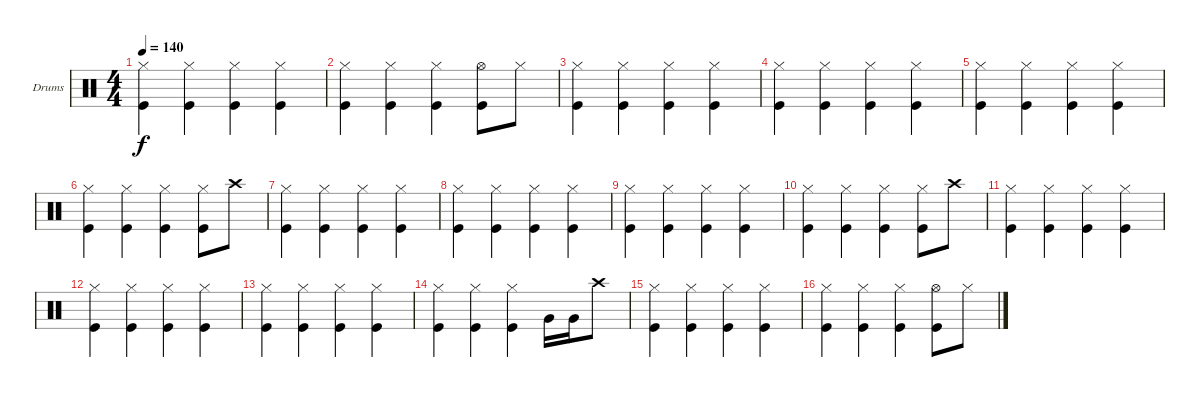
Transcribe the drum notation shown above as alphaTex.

\bracketExtendMode groupsimilarinstruments
\firstSystemTrackNameOrientation horizontal
\otherSystemsTrackNameOrientation horizontal
\track ("Drumkit" "Drums") {instrument percussion}
\staff {score}
\articulation defaults
\ts (4 4)
\tempo 140
\clef neutral
\ks c
("Hi-Hat (closed)" "Kick (hit)").4{dy f} ("Hi-Hat (closed)" "Kick (hit)").4 ("Hi-Hat (closed)" "Kick (hit)").4 ("Hi-Hat (closed)" "Kick (hit)").4 |
("Hi-Hat (closed)" "Kick (hit)").4 ("Hi-Hat (closed)" "Kick (hit)").4 ("Hi-Hat (closed)" "Kick (hit)").4 ("Hi-Hat (open)" "Kick (hit)").8 "Hi-Hat (closed)".8 |
("Hi-Hat (closed)" "Kick (hit)").4 ("Hi-Hat (closed)" "Kick (hit)").4 ("Hi-Hat (closed)" "Kick (hit)").4 ("Hi-Hat (closed)" "Kick (hit)").4 |
("Hi-Hat (closed)" "Kick (hit)").4 ("Hi-Hat (closed)" "Kick (hit)").4 ("Hi-Hat (closed)" "Kick (hit)").4 ("Hi-Hat (closed)" "Kick (hit)").4 |
("Hi-Hat (closed)" "Kick (hit)").4 ("Hi-Hat (closed)" "Kick (hit)").4 ("Hi-Hat (closed)" "Kick (hit)").4 ("Hi-Hat (closed)" "Kick (hit)").4 |
("Hi-Hat (closed)" "Kick (hit)").4 ("Hi-Hat (closed)" "Kick (hit)").4 ("Hi-Hat (closed)" "Kick (hit)").4 ("Hi-Hat (closed)" "Kick (hit)").8 "Crash high (hit)".8 |
("Hi-Hat (closed)" "Kick (hit)").4 ("Hi-Hat (closed)" "Kick (hit)").4 ("Hi-Hat (closed)" "Kick (hit)").4 ("Hi-Hat (closed)" "Kick (hit)").4 |
("Hi-Hat (closed)" "Kick (hit)").4 ("Hi-Hat (closed)" "Kick (hit)").4 ("Hi-Hat (closed)" "Kick (hit)").4 ("Hi-Hat (closed)" "Kick (hit)").4 |
("Hi-Hat (closed)" "Kick (hit)").4 ("Hi-Hat (closed)" "Kick (hit)").4 ("Hi-Hat (closed)" "Kick (hit)").4 ("Hi-Hat (closed)" "Kick (hit)").4 |
("Hi-Hat (closed)" "Kick (hit)").4 ("Hi-Hat (closed)" "Kick (hit)").4 ("Hi-Hat (closed)" "Kick (hit)").4 ("Hi-Hat (closed)" "Kick (hit)").8 "Crash high (hit)".8 |
("Hi-Hat (closed)" "Kick (hit)").4 ("Hi-Hat (closed)" "Kick (hit)").4 ("Hi-Hat (closed)" "Kick (hit)").4 ("Hi-Hat (closed)" "Kick (hit)").4 |
("Hi-Hat (closed)" "Kick (hit)").4 ("Hi-Hat (closed)" "Kick (hit)").4 ("Hi-Hat (closed)" "Kick (hit)").4 ("Hi-Hat (closed)" "Kick (hit)").4 |
("Hi-Hat (closed)" "Kick (hit)").4 ("Hi-Hat (closed)" "Kick (hit)").4 ("Hi-Hat (closed)" "Kick (hit)").4 ("Hi-Hat (closed)" "Kick (hit)").4 |
("Hi-Hat (closed)" "Kick (hit)").4 ("Hi-Hat (closed)" "Kick (hit)").4 ("Hi-Hat (closed)" "Kick (hit)").4 "Very Low Tom (hit)".16 "Very Low Tom (hit)".16 "Crash high (hit)".8 |
("Hi-Hat (closed)" "Kick (hit)").4 ("Hi-Hat (closed)" "Kick (hit)").4 ("Hi-Hat (closed)" "Kick (hit)").4 ("Hi-Hat (closed)" "Kick (hit)").4 |
("Hi-Hat (closed)" "Kick (hit)").4 ("Hi-Hat (closed)" "Kick (hit)").4 ("Hi-Hat (closed)" "Kick (hit)").4 ("Hi-Hat (open)" "Kick (hit)").8 "Hi-Hat (closed)".8
